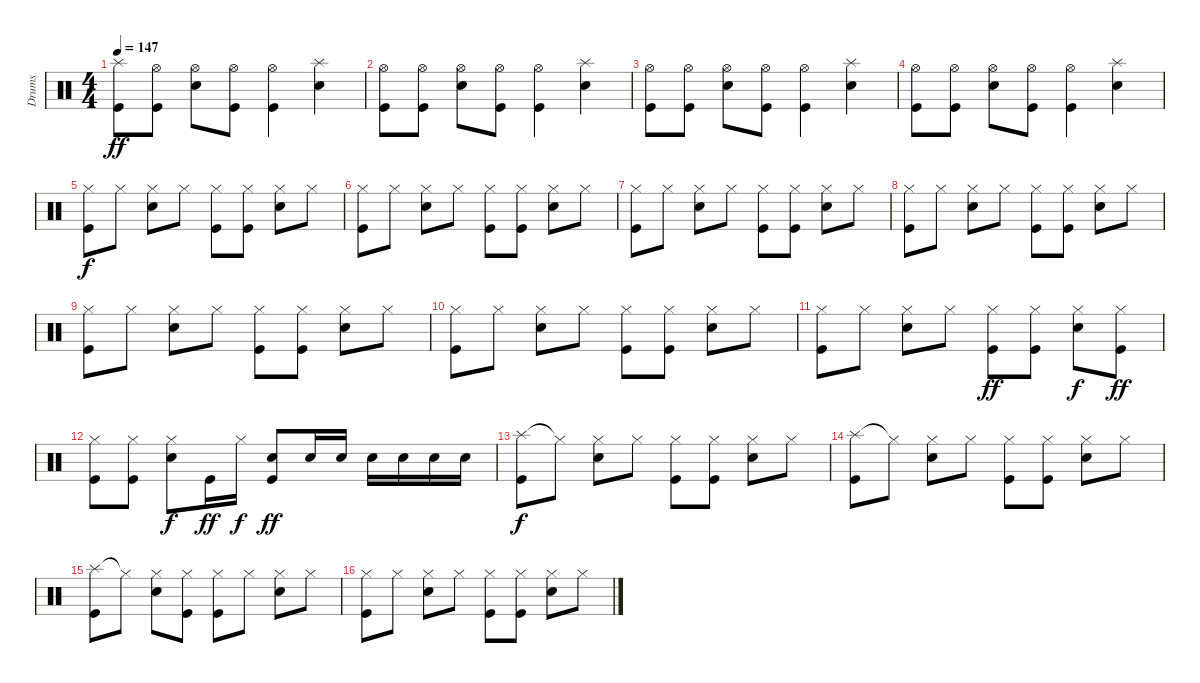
\track ("Drums" "Drums") {instrument percussion}
\staff {score}
\articulation defaults
\ts (4 4)
\tempo 147
\clef neutral
\ks c
("Splash (hit)" "Kick (hit)").8{dy ff} ("Hi-Hat (open)" "Kick (hit)").8 ("Hi-Hat (open)" "Snare (hit) 2").8 ("Hi-Hat (open)" "Kick (hit)").8 ("Hi-Hat (open)" "Kick (hit)").4 ("Splash (hit)" "Snare (hit) 2").4 |
("Hi-Hat (open)" "Kick (hit)").8 ("Hi-Hat (open)" "Kick (hit)").8 ("Hi-Hat (open)" "Snare (hit) 2").8 ("Hi-Hat (open)" "Kick (hit)").8 ("Hi-Hat (open)" "Kick (hit)").4 ("Splash (hit)" "Snare (hit) 2").4 |
("Hi-Hat (open)" "Kick (hit)").8 ("Hi-Hat (open)" "Kick (hit)").8 ("Hi-Hat (open)" "Snare (hit) 2").8 ("Hi-Hat (open)" "Kick (hit)").8 ("Hi-Hat (open)" "Kick (hit)").4 ("Splash (hit)" "Snare (hit) 2").4 |
("Hi-Hat (open)" "Kick (hit)").8 ("Hi-Hat (open)" "Kick (hit)").8 ("Hi-Hat (open)" "Snare (hit) 2").8 ("Hi-Hat (open)" "Kick (hit)").8 ("Hi-Hat (open)" "Kick (hit)").4 ("Splash (hit)" "Snare (hit) 2").4 |
("Hi-Hat (closed)" "Kick (hit)").8{dy f} "Hi-Hat (closed)".8 ("Hi-Hat (closed)" "Snare (hit) 2").8 "Hi-Hat (closed)".8 ("Hi-Hat (closed)" "Kick (hit)").8 ("Hi-Hat (closed)" "Kick (hit)").8 ("Hi-Hat (closed)" "Snare (hit) 2").8 "Hi-Hat (closed)".8 |
("Hi-Hat (closed)" "Kick (hit)").8 "Hi-Hat (closed)".8 ("Hi-Hat (closed)" "Snare (hit) 2").8 "Hi-Hat (closed)".8 ("Hi-Hat (closed)" "Kick (hit)").8 ("Hi-Hat (closed)" "Kick (hit)").8 ("Hi-Hat (closed)" "Snare (hit) 2").8 "Hi-Hat (closed)".8 |
("Hi-Hat (closed)" "Kick (hit)").8 "Hi-Hat (closed)".8 ("Hi-Hat (closed)" "Snare (hit) 2").8 "Hi-Hat (closed)".8 ("Hi-Hat (closed)" "Kick (hit)").8 ("Hi-Hat (closed)" "Kick (hit)").8 ("Hi-Hat (closed)" "Snare (hit) 2").8 "Hi-Hat (closed)".8 |
("Hi-Hat (closed)" "Kick (hit)").8 "Hi-Hat (closed)".8 ("Hi-Hat (closed)" "Snare (hit) 2").8 "Hi-Hat (closed)".8 ("Hi-Hat (closed)" "Kick (hit)").8 ("Hi-Hat (closed)" "Kick (hit)").8 ("Hi-Hat (closed)" "Snare (hit) 2").8 "Hi-Hat (closed)".8 |
("Hi-Hat (closed)" "Kick (hit)").8 "Hi-Hat (closed)".8 ("Hi-Hat (closed)" "Snare (hit) 2").8 "Hi-Hat (closed)".8 ("Hi-Hat (closed)" "Kick (hit)").8 ("Hi-Hat (closed)" "Kick (hit)").8 ("Hi-Hat (closed)" "Snare (hit) 2").8 "Hi-Hat (closed)".8 |
("Hi-Hat (closed)" "Kick (hit)").8 "Hi-Hat (closed)".8 ("Hi-Hat (closed)" "Snare (hit) 2").8 "Hi-Hat (closed)".8 ("Hi-Hat (closed)" "Kick (hit)").8 ("Hi-Hat (closed)" "Kick (hit)").8 ("Hi-Hat (closed)" "Snare (hit) 2").8 "Hi-Hat (closed)".8 |
("Hi-Hat (closed)" "Kick (hit)").8 "Hi-Hat (closed)".8 ("Hi-Hat (closed)" "Snare (hit) 2").8 "Hi-Hat (closed)".8 ("Hi-Hat (closed)" "Kick (hit)").8{dy ff} ("Hi-Hat (closed)" "Kick (hit)").8 ("Hi-Hat (closed)" "Snare (hit) 2").8{dy f} ("Hi-Hat (closed)" "Kick (hit)").8{dy ff} |
("Hi-Hat (closed)" "Kick (hit)").8 ("Hi-Hat (closed)" "Kick (hit)").8 ("Hi-Hat (closed)" "Snare (hit) 2").8{dy f} "Kick (hit)".16{dy ff} "Hi-Hat (closed)".16{dy f} ("Snare (hit) 2" "Kick (hit)").8{dy ff} "Snare (hit) 2".16 "Snare (hit) 2".16 "Snare (hit) 2".16 "Snare (hit) 2".16 "Snare (hit) 2".16 "Snare (hit) 2".16 |
("Splash (hit)" "Kick (hit)").8{dy f} "Hi-Hat (closed)"{t}.8 ("Hi-Hat (closed)" "Snare (hit) 2").8 "Hi-Hat (closed)".8 ("Hi-Hat (closed)" "Kick (hit)").8 ("Hi-Hat (closed)" "Kick (hit)").8 ("Hi-Hat (closed)" "Snare (hit) 2").8 "Hi-Hat (closed)".8 |
("Splash (hit)" "Kick (hit)").8 "Hi-Hat (closed)"{t}.8 ("Hi-Hat (closed)" "Snare (hit) 2").8 "Hi-Hat (closed)".8 ("Hi-Hat (closed)" "Kick (hit)").8 ("Hi-Hat (closed)" "Kick (hit)").8 ("Hi-Hat (closed)" "Snare (hit) 2").8 "Hi-Hat (closed)".8 |
("Splash (hit)" "Kick (hit)").8 "Hi-Hat (closed)"{t}.8 ("Hi-Hat (closed)" "Snare (hit) 2").8 ("Hi-Hat (closed)" "Kick (hit)").8 ("Hi-Hat (closed)" "Kick (hit)").8 "Hi-Hat (closed)".8 ("Hi-Hat (closed)" "Snare (hit) 2").8 "Hi-Hat (closed)".8 |
("Hi-Hat (closed)" "Kick (hit)").8 "Hi-Hat (closed)".8 ("Hi-Hat (closed)" "Snare (hit) 2").8 "Hi-Hat (closed)".8 ("Hi-Hat (closed)" "Kick (hit)").8 ("Hi-Hat (closed)" "Kick (hit)").8 ("Hi-Hat (closed)" "Snare (hit) 2").8 "Hi-Hat (closed)".8
